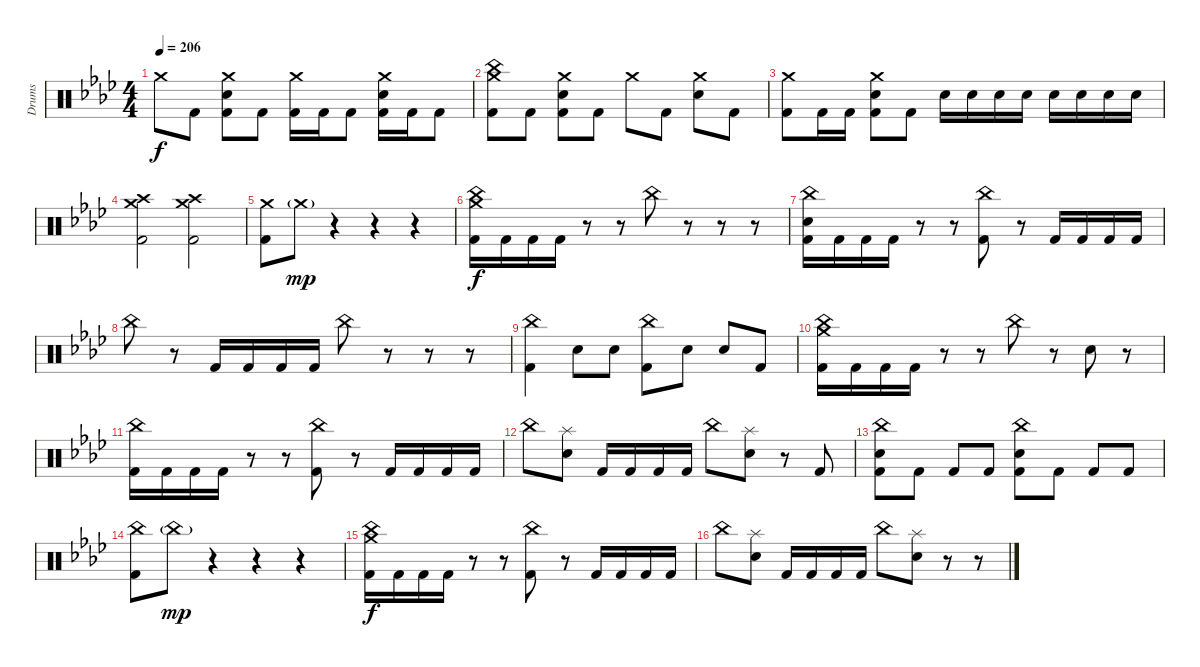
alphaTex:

\track ("Drums" "Drums") {instrument percussion}
\staff {score}
\articulation defaults
\ts (4 4)
\tempo 206
\clef neutral
\ks fminor "Crash medium (hit)".8{dy f} "Kick (hit) 2".8
("Crash medium (hit)" "Electric Snare (hit)" "Kick (hit) 2").8 "Kick (hit) 2".8 ("Crash medium (hit)" "Kick (hit) 2").16 "Kick (hit) 2".16 "Kick (hit) 2".8 ("Crash medium (hit)" "Electric Snare (hit)" "Kick (hit) 2").16 "Kick (hit) 2".16 "Kick (hit) 2".8 |
("Crash medium (hit)" "China (hit)" "Kick (hit) 2").8 "Kick (hit) 2".8 ("Crash medium (hit)" "Electric Snare (hit)" "Kick (hit) 2").8 "Kick (hit) 2".8 "Crash medium (hit)".8 "Kick (hit) 2".8 ("Crash medium (hit)" "Electric Snare (hit)").8 "Kick (hit) 2".8 |
("Crash medium (hit)" "Kick (hit) 2").8 "Kick (hit) 2".16 "Kick (hit) 2".16 ("Crash medium (hit)" "Electric Snare (hit)" "Kick (hit) 2").8 "Kick (hit) 2".8 "Electric Snare (hit)".16 "Electric Snare (hit)".16 "Electric Snare (hit)".16 "Electric Snare (hit)".16 "Electric Snare (hit)".16 "Electric Snare (hit)".16 "Electric Snare (hit)".16 "Electric Snare (hit)".16 |
("Crash medium (hit)" "Crash high (hit)" "Kick (hit) 2").2 ("Crash medium (hit)" "Crash high (hit)" "Kick (hit) 2").2 |
("Crash medium (hit)" "Kick (hit) 2").8 "Crash medium (hit)"{g}.8{dy mp} r.4 r.4 r.4 |
("Crash medium (hit)" "China (hit)" "Kick (hit) 2").16{dy f} "Kick (hit) 2".16 "Kick (hit) 2".16 "Kick (hit) 2".16 r.8 r.8 "China (hit)".8 r.8 r.8 r.8 |
("China (hit)" "Electric Snare (hit)" "Kick (hit) 2").16 "Kick (hit) 2".16 "Kick (hit) 2".16 "Kick (hit) 2".16 r.8 r.8 ("China (hit)" "Kick (hit) 2").8 r.8 "Kick (hit) 2".16 "Kick (hit) 2".16 "Kick (hit) 2".16 "Kick (hit) 2".16 |
"China (hit)".8 r.8 "Kick (hit) 2".16 "Kick (hit) 2".16 "Kick (hit) 2".16 "Kick (hit) 2".16 "China (hit)".8 r.8 r.8 r.8 |
("China (hit)" "Kick (hit) 2").4 "Electric Snare (hit)".8 "Electric Snare (hit)".8 ("China (hit)" "Kick (hit) 2").8 "Electric Snare (hit)".8 "Electric Snare (hit)".8 "Kick (hit) 2".8 |
("Crash medium (hit)" "China (hit)" "Kick (hit) 2").16 "Kick (hit) 2".16 "Kick (hit) 2".16 "Kick (hit) 2".16 r.8 r.8 "China (hit)".8 r.8 "Electric Snare (hit)".8 r.8 |
("China (hit)" "Kick (hit) 2").16 "Kick (hit) 2".16 "Kick (hit) 2".16 "Kick (hit) 2".16 r.8 r.8 ("China (hit)" "Kick (hit) 2").8 r.8 "Kick (hit) 2".16 "Kick (hit) 2".16 "Kick (hit) 2".16 "Kick (hit) 2".16 |
"China (hit)".8 ("Splash (hit)" "Electric Snare (hit)").8 "Kick (hit) 2".16 "Kick (hit) 2".16 "Kick (hit) 2".16 "Kick (hit) 2".16 "China (hit)".8 ("Splash (hit)" "Electric Snare (hit)").8 r.8 "Kick (hit) 2".8 |
("China (hit)" "Electric Snare (hit)" "Kick (hit) 2").8 "Kick (hit) 2".8 "Kick (hit) 2".8 "Kick (hit) 2".8 ("China (hit)" "Electric Snare (hit)" "Kick (hit) 2").8 "Kick (hit) 2".8 "Kick (hit) 2".8 "Kick (hit) 2".8 |
("China (hit)" "Kick (hit) 2").8 "China (hit)"{g}.8{dy mp} r.4 r.4 r.4 |
("Crash medium (hit)" "China (hit)" "Kick (hit) 2").16{dy f} "Kick (hit) 2".16 "Kick (hit) 2".16 "Kick (hit) 2".16 r.8 r.8 ("China (hit)" "Kick (hit) 2").8 r.8 "Kick (hit) 2".16 "Kick (hit) 2".16 "Kick (hit) 2".16 "Kick (hit) 2".16 |
"China (hit)".8 ("Splash (hit)" "Electric Snare (hit)").8 "Kick (hit) 2".16 "Kick (hit) 2".16 "Kick (hit) 2".16 "Kick (hit) 2".16 "China (hit)".8 ("Splash (hit)" "Electric Snare (hit)").8 r.8 r.8
